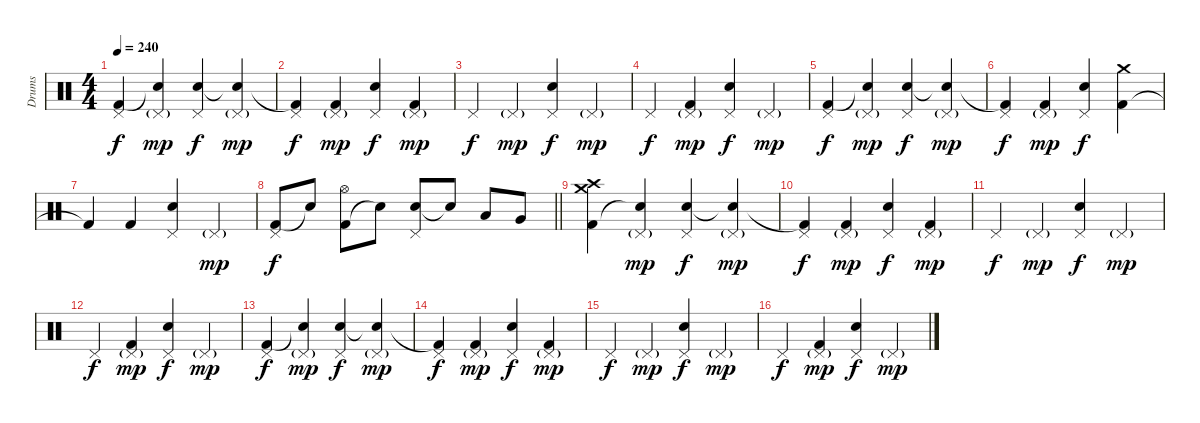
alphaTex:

\track ("Drums" "Drums") {instrument percussion}
\staff {score}
\articulation defaults
\ts (4 4)
\tempo 240
\clef neutral
\ks c
("Kick (hit) 2" "Pedal Hi-Hat (hit)").4{dy f} ("Electric Snare (hit)"{t} "Pedal Hi-Hat (hit)"{g}).4{dy mp} ("Electric Snare (hit)" "Pedal Hi-Hat (hit)").4{dy f} ("Snare (hit)"{t} "Pedal Hi-Hat (hit)"{g}).4{dy mp} |
("Kick (hit) 2"{t} "Pedal Hi-Hat (hit)").4{dy f} ("Kick (hit) 2" "Pedal Hi-Hat (hit)"{g}).4{dy mp} ("Electric Snare (hit)" "Pedal Hi-Hat (hit)").4{dy f} ("Kick (hit) 2" "Pedal Hi-Hat (hit)"{g}).4{dy mp} |
"Pedal Hi-Hat (hit)".4{dy f} "Pedal Hi-Hat (hit)"{g}.4{dy mp} ("Electric Snare (hit)" "Pedal Hi-Hat (hit)").4{dy f} "Pedal Hi-Hat (hit)"{g}.4{dy mp} |
"Pedal Hi-Hat (hit)".4{dy f} ("Kick (hit) 2" "Pedal Hi-Hat (hit)"{g}).4{dy mp} ("Electric Snare (hit)" "Pedal Hi-Hat (hit)").4{dy f} "Pedal Hi-Hat (hit)"{g}.4{dy mp} |
("Kick (hit) 2" "Pedal Hi-Hat (hit)").4{dy f} ("Electric Snare (hit)"{t} "Pedal Hi-Hat (hit)"{g}).4{dy mp} ("Electric Snare (hit)" "Pedal Hi-Hat (hit)").4{dy f} ("Snare (hit)"{t} "Pedal Hi-Hat (hit)"{g}).4{dy mp} |
("Kick (hit) 2"{t} "Pedal Hi-Hat (hit)").4{dy f} ("Kick (hit) 2" "Pedal Hi-Hat (hit)"{g}).4{dy mp} ("Electric Snare (hit)" "Pedal Hi-Hat (hit)").4{dy f} ("Kick (hit) 2" "Crash medium (hit)").4 |
"Kick (hit) 2"{t}.4 "Kick (hit) 2".4 ("Electric Snare (hit)" "Pedal Hi-Hat (hit)").4 "Pedal Hi-Hat (hit)"{g}.4{dy mp} |
\barLineRight lightlight
("Kick (hit) 2" "Pedal Hi-Hat (hit)").8{dy f} "Snare (hit)"{t}.8 ("Kick (hit) 2" "Hi-Hat (open)").8 "Snare (hit)"{t}.8 ("Electric Snare (hit)" "Pedal Hi-Hat (hit)").8 "Electric Snare (hit)"{t}.8 "Low Tom (hit)".8 "Very Low Tom (hit)".8 |
("Kick (hit) 2" "Crash medium (hit)" "Crash high (hit)").4 ("Electric Snare (hit)"{t} "Pedal Hi-Hat (hit)"{g}).4{dy mp} ("Electric Snare (hit)" "Pedal Hi-Hat (hit)").4{dy f} ("Snare (hit)"{t} "Pedal Hi-Hat (hit)"{g}).4{dy mp} |
("Kick (hit) 2"{t} "Pedal Hi-Hat (hit)").4{dy f} ("Kick (hit) 2" "Pedal Hi-Hat (hit)"{g}).4{dy mp} ("Electric Snare (hit)" "Pedal Hi-Hat (hit)").4{dy f} ("Kick (hit) 2" "Pedal Hi-Hat (hit)"{g}).4{dy mp} |
"Pedal Hi-Hat (hit)".4{dy f} "Pedal Hi-Hat (hit)"{g}.4{dy mp} ("Electric Snare (hit)" "Pedal Hi-Hat (hit)").4{dy f} "Pedal Hi-Hat (hit)"{g}.4{dy mp} |
"Pedal Hi-Hat (hit)".4{dy f} ("Kick (hit) 2" "Pedal Hi-Hat (hit)"{g}).4{dy mp} ("Electric Snare (hit)" "Pedal Hi-Hat (hit)").4{dy f} "Pedal Hi-Hat (hit)"{g}.4{dy mp} |
("Kick (hit) 2" "Pedal Hi-Hat (hit)").4{dy f} ("Electric Snare (hit)"{t} "Pedal Hi-Hat (hit)"{g}).4{dy mp} ("Electric Snare (hit)" "Pedal Hi-Hat (hit)").4{dy f} ("Snare (hit)"{t} "Pedal Hi-Hat (hit)"{g}).4{dy mp} |
("Kick (hit) 2"{t} "Pedal Hi-Hat (hit)").4{dy f} ("Kick (hit) 2" "Pedal Hi-Hat (hit)"{g}).4{dy mp} ("Electric Snare (hit)" "Pedal Hi-Hat (hit)").4{dy f} ("Kick (hit) 2" "Pedal Hi-Hat (hit)"{g}).4{dy mp} |
"Pedal Hi-Hat (hit)".4{dy f} "Pedal Hi-Hat (hit)"{g}.4{dy mp} ("Electric Snare (hit)" "Pedal Hi-Hat (hit)").4{dy f} "Pedal Hi-Hat (hit)"{g}.4{dy mp} |
"Pedal Hi-Hat (hit)".4{dy f} ("Kick (hit) 2" "Pedal Hi-Hat (hit)"{g}).4{dy mp} ("Electric Snare (hit)" "Pedal Hi-Hat (hit)").4{dy f} "Pedal Hi-Hat (hit)"{g}.4{dy mp}
